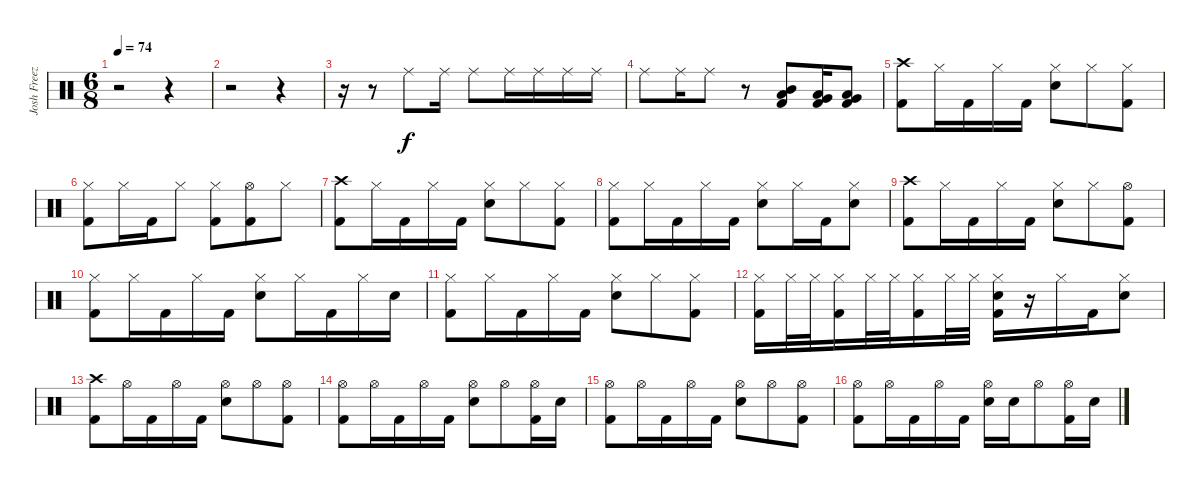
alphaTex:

\track ("Josh Freeze - Drums" "Josh Freez") {instrument percussion}
\staff {score}
\articulation defaults
\ts (6 8)
\tempo 74
\clef neutral
\ks c
r.2{dy f} r.4 |
r.2 r.4 |
r.16 r.8 "Ride (middle)".8 "Ride (middle)".16 "Ride (middle)".8 "Ride (middle)".16 "Ride (middle)".16 "Ride (middle)".16 "Ride (middle)".16 |
"Ride (middle)".8 "Ride (middle)".16 "Ride (middle)".8 r.8 ("Mid Tom (hit)" "Low Tom (hit)" "Kick (hit) 2").8 ("Low Tom (hit)" "Very Low Tom (hit)" "Kick (hit) 2").16 ("Low Tom (hit)" "Very Low Tom (hit)" "Kick (hit) 2").8 |
("Crash high (hit)" "Kick (hit) 2").8 "Hi-Hat (closed)".16 "Kick (hit) 2".16 "Hi-Hat (closed)".16 "Kick (hit) 2".16 ("Hi-Hat (closed)" "Electric Snare (hit)").8 "Hi-Hat (closed)".8 ("Hi-Hat (closed)" "Kick (hit) 2").8 |
("Hi-Hat (closed)" "Kick (hit) 2").8 "Hi-Hat (closed)".16 "Kick (hit) 2".16 "Hi-Hat (closed)".8 ("Hi-Hat (closed)" "Kick (hit) 2").8 ("Hi-Hat (open)" "Kick (hit) 2").8 "Hi-Hat (closed)".8 |
("Crash high (hit)" "Kick (hit) 2").8 "Hi-Hat (closed)".16 "Kick (hit) 2".16 "Hi-Hat (closed)".16 "Kick (hit) 2".16 ("Hi-Hat (closed)" "Electric Snare (hit)").8 "Hi-Hat (closed)".8 ("Hi-Hat (closed)" "Kick (hit) 2").8 |
("Hi-Hat (closed)" "Kick (hit) 2").8 "Hi-Hat (closed)".16 "Kick (hit) 2".16 "Hi-Hat (closed)".16 "Kick (hit) 2".16 ("Hi-Hat (closed)" "Electric Snare (hit)").8 "Hi-Hat (closed)".16 "Kick (hit) 2".16 ("Hi-Hat (closed)" "Electric Snare (hit)").8 |
("Crash high (hit)" "Kick (hit) 2").8 "Hi-Hat (closed)".16 "Kick (hit) 2".16 "Hi-Hat (closed)".16 "Kick (hit) 2".16 ("Hi-Hat (closed)" "Electric Snare (hit)").8 "Hi-Hat (closed)".8 ("Hi-Hat (open)" "Kick (hit) 2").8 |
("Hi-Hat (closed)" "Kick (hit) 2").8 "Hi-Hat (closed)".16 "Kick (hit) 2".16 "Hi-Hat (closed)".16 "Kick (hit) 2".16 ("Hi-Hat (closed)" "Electric Snare (hit)").8 "Hi-Hat (closed)".16 "Kick (hit) 2".16 "Hi-Hat (closed)".16 "Electric Snare (hit)".16 |
("Hi-Hat (closed)" "Kick (hit) 2").8 "Hi-Hat (closed)".16 "Kick (hit) 2".16 "Hi-Hat (closed)".16 "Kick (hit) 2".16 ("Hi-Hat (closed)" "Electric Snare (hit)").8 "Hi-Hat (closed)".8 ("Hi-Hat (closed)" "Kick (hit) 2").8 |
("Hi-Hat (closed)" "Kick (hit) 2").16 "Hi-Hat (closed)".32 "Hi-Hat (closed)".32 ("Hi-Hat (closed)" "Kick (hit) 2").16 "Hi-Hat (closed)".32 "Hi-Hat (closed)".32 ("Hi-Hat (closed)" "Kick (hit) 2").16 "Hi-Hat (closed)".32 "Hi-Hat (closed)".32 ("Hi-Hat (closed)" "Electric Snare (hit)" "Kick (hit) 2").16 r.16 "Hi-Hat (closed)".16 "Kick (hit) 2".16 ("Hi-Hat (closed)" "Electric Snare (hit)").8 |
("Crash high (hit)" "Kick (hit) 2").8 "Hi-Hat (open)".16 "Kick (hit) 2".16 "Hi-Hat (open)".16 "Kick (hit) 2".16 ("Hi-Hat (open)" "Electric Snare (hit)").8 "Hi-Hat (open)".8 ("Hi-Hat (open)" "Kick (hit) 2").8 |
("Hi-Hat (open)" "Kick (hit) 2").8 "Hi-Hat (open)".16 "Kick (hit) 2".16 "Hi-Hat (open)".16 "Kick (hit) 2".16 ("Hi-Hat (open)" "Electric Snare (hit)").8 "Hi-Hat (open)".8 ("Hi-Hat (open)" "Kick (hit) 2").16 "Electric Snare (hit)".16 |
("Hi-Hat (open)" "Kick (hit) 2").8 "Hi-Hat (open)".16 "Kick (hit) 2".16 "Hi-Hat (open)".16 "Kick (hit) 2".16 ("Hi-Hat (open)" "Electric Snare (hit)").8 "Hi-Hat (open)".8 ("Hi-Hat (open)" "Kick (hit) 2").8 |
("Hi-Hat (open)" "Kick (hit) 2").8 "Hi-Hat (open)".16 "Kick (hit) 2".16 "Hi-Hat (open)".16 "Kick (hit) 2".16 ("Hi-Hat (open)" "Electric Snare (hit)").16 "Electric Snare (hit)".16 "Hi-Hat (open)".8 ("Hi-Hat (open)" "Kick (hit) 2").16 "Electric Snare (hit)".16
